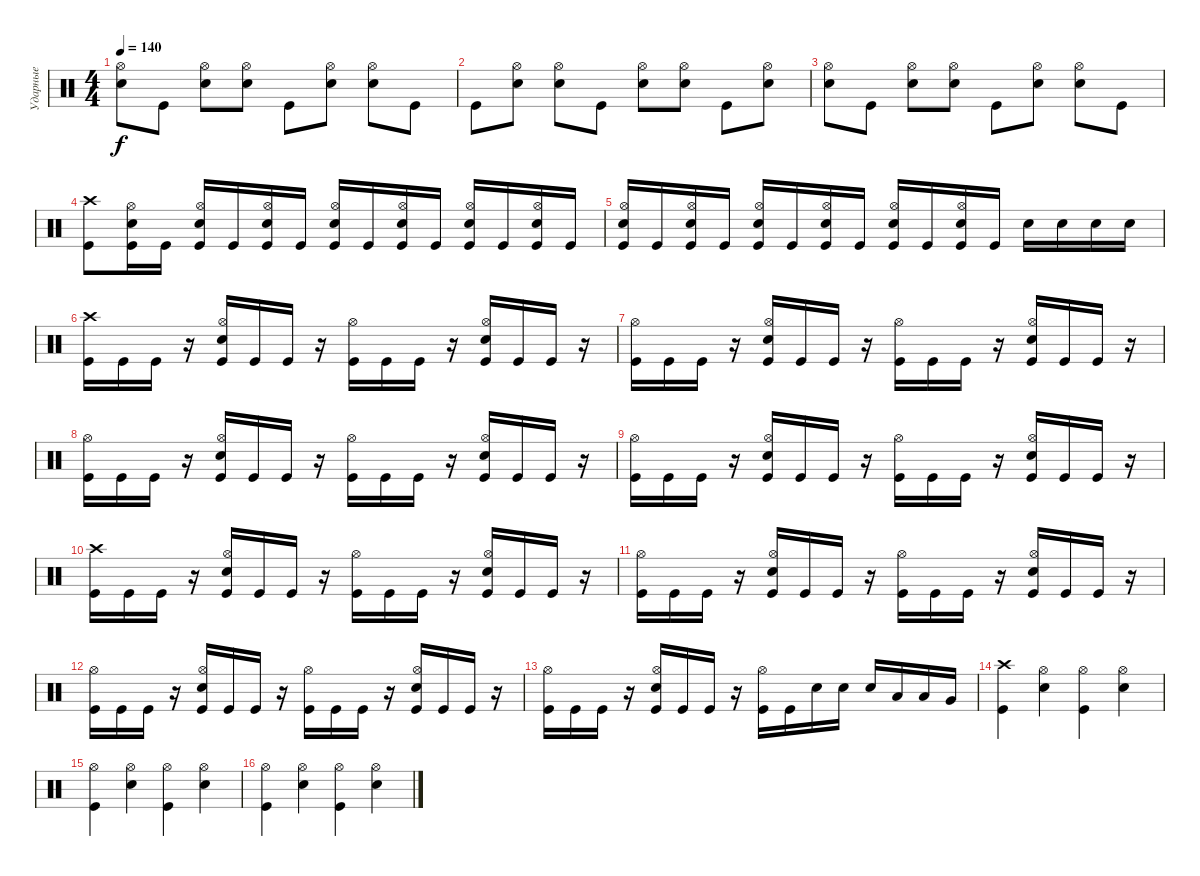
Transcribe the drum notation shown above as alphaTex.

\track ("Ударные" "Ударные") {instrument percussion}
\staff {score}
\articulation defaults
\ts (4 4)
\tempo 140
\clef neutral
\ks c
("Snare (hit) 2" "Hi-Hat (open)").8{dy f} "Kick (hit)".8 ("Snare (hit) 2" "Hi-Hat (open)").8 ("Snare (hit) 2" "Hi-Hat (open)").8 "Kick (hit)".8 ("Snare (hit) 2" "Hi-Hat (open)").8 ("Snare (hit) 2" "Hi-Hat (open)").8 "Kick (hit)".8 |
"Kick (hit)".8 ("Snare (hit) 2" "Hi-Hat (open)").8 ("Snare (hit) 2" "Hi-Hat (open)").8 "Kick (hit)".8 ("Snare (hit) 2" "Hi-Hat (open)").8 ("Snare (hit) 2" "Hi-Hat (open)").8 "Kick (hit)".8 ("Snare (hit) 2" "Hi-Hat (open)").8 |
("Snare (hit) 2" "Hi-Hat (open)").8 "Kick (hit)".8 ("Snare (hit) 2" "Hi-Hat (open)").8 ("Snare (hit) 2" "Hi-Hat (open)").8 "Kick (hit)".8 ("Snare (hit) 2" "Hi-Hat (open)").8 ("Snare (hit) 2" "Hi-Hat (open)").8 "Kick (hit)".8 |
("Kick (hit)" "Crash high (hit)").8 ("Snare (hit) 2" "Kick (hit)" "Hi-Hat (open)").16 "Kick (hit)".16 ("Snare (hit) 2" "Kick (hit)" "Hi-Hat (open)").16 "Kick (hit)".16 ("Kick (hit)" "Snare (hit) 2" "Hi-Hat (open)").16 "Kick (hit)".16 ("Snare (hit) 2" "Kick (hit)" "Hi-Hat (open)").16 "Kick (hit)".16 ("Snare (hit) 2" "Kick (hit)" "Hi-Hat (open)").16 "Kick (hit)".16 ("Kick (hit)" "Snare (hit) 2" "Hi-Hat (open)").16 "Kick (hit)".16 ("Snare (hit) 2" "Kick (hit)" "Hi-Hat (open)").16 "Kick (hit)".16 |
("Kick (hit)" "Snare (hit) 2" "Hi-Hat (open)").16 "Kick (hit)".16 ("Snare (hit) 2" "Kick (hit)" "Hi-Hat (open)").16 "Kick (hit)".16 ("Snare (hit) 2" "Kick (hit)" "Hi-Hat (open)").16 "Kick (hit)".16 ("Kick (hit)" "Snare (hit) 2" "Hi-Hat (open)").16 "Kick (hit)".16 ("Snare (hit) 2" "Kick (hit)" "Hi-Hat (open)").16 "Kick (hit)".16 ("Snare (hit) 2" "Kick (hit)" "Hi-Hat (open)").16 "Kick (hit)".16 "Snare (hit) 2".16 "Snare (hit) 2".16 "Snare (hit) 2".16 "Snare (hit) 2".16 |
("Kick (hit)" "Crash high (hit)").16 "Kick (hit)".16 "Kick (hit)".16 r.16 ("Kick (hit)" "Snare (hit) 2" "Hi-Hat (open)").16 "Kick (hit)".16 "Kick (hit)".16 r.16 ("Kick (hit)" "Hi-Hat (open)").16 "Kick (hit)".16 "Kick (hit)".16 r.16 ("Kick (hit)" "Snare (hit) 2" "Hi-Hat (open)").16 "Kick (hit)".16 "Kick (hit)".16 r.16 |
("Kick (hit)" "Hi-Hat (open)").16 "Kick (hit)".16 "Kick (hit)".16 r.16 ("Kick (hit)" "Snare (hit) 2" "Hi-Hat (open)").16 "Kick (hit)".16 "Kick (hit)".16 r.16 ("Kick (hit)" "Hi-Hat (open)").16 "Kick (hit)".16 "Kick (hit)".16 r.16 ("Kick (hit)" "Snare (hit) 2" "Hi-Hat (open)").16 "Kick (hit)".16 "Kick (hit)".16 r.16 |
("Kick (hit)" "Hi-Hat (open)").16 "Kick (hit)".16 "Kick (hit)".16 r.16 ("Kick (hit)" "Snare (hit) 2" "Hi-Hat (open)").16 "Kick (hit)".16 "Kick (hit)".16 r.16 ("Kick (hit)" "Hi-Hat (open)").16 "Kick (hit)".16 "Kick (hit)".16 r.16 ("Kick (hit)" "Snare (hit) 2" "Hi-Hat (open)").16 "Kick (hit)".16 "Kick (hit)".16 r.16 |
("Kick (hit)" "Hi-Hat (open)").16 "Kick (hit)".16 "Kick (hit)".16 r.16 ("Kick (hit)" "Snare (hit) 2" "Hi-Hat (open)").16 "Kick (hit)".16 "Kick (hit)".16 r.16 ("Kick (hit)" "Hi-Hat (open)").16 "Kick (hit)".16 "Kick (hit)".16 r.16 ("Kick (hit)" "Snare (hit) 2" "Hi-Hat (open)").16 "Kick (hit)".16 "Kick (hit)".16 r.16 |
("Kick (hit)" "Crash high (hit)").16 "Kick (hit)".16 "Kick (hit)".16 r.16 ("Kick (hit)" "Snare (hit) 2" "Hi-Hat (open)").16 "Kick (hit)".16 "Kick (hit)".16 r.16 ("Kick (hit)" "Hi-Hat (open)").16 "Kick (hit)".16 "Kick (hit)".16 r.16 ("Kick (hit)" "Snare (hit) 2" "Hi-Hat (open)").16 "Kick (hit)".16 "Kick (hit)".16 r.16 |
("Kick (hit)" "Hi-Hat (open)").16 "Kick (hit)".16 "Kick (hit)".16 r.16 ("Kick (hit)" "Snare (hit) 2" "Hi-Hat (open)").16 "Kick (hit)".16 "Kick (hit)".16 r.16 ("Kick (hit)" "Hi-Hat (open)").16 "Kick (hit)".16 "Kick (hit)".16 r.16 ("Kick (hit)" "Snare (hit) 2" "Hi-Hat (open)").16 "Kick (hit)".16 "Kick (hit)".16 r.16 |
("Kick (hit)" "Hi-Hat (open)").16 "Kick (hit)".16 "Kick (hit)".16 r.16 ("Kick (hit)" "Snare (hit) 2" "Hi-Hat (open)").16 "Kick (hit)".16 "Kick (hit)".16 r.16 ("Kick (hit)" "Hi-Hat (open)").16 "Kick (hit)".16 "Kick (hit)".16 r.16 ("Kick (hit)" "Snare (hit) 2" "Hi-Hat (open)").16 "Kick (hit)".16 "Kick (hit)".16 r.16 |
("Kick (hit)" "Hi-Hat (open)").16 "Kick (hit)".16 "Kick (hit)".16 r.16 ("Kick (hit)" "Snare (hit) 2" "Hi-Hat (open)").16 "Kick (hit)".16 "Kick (hit)".16 r.16 ("Kick (hit)" "Hi-Hat (open)").16 "Kick (hit)".16 "Snare (hit) 2".16 "Snare (hit) 2".16 "Snare (hit) 2".16 "Low Tom (hit)".16 "Low Tom (hit)".16 "Very Low Tom (hit)".16 |
("Kick (hit)" "Crash high (hit)").4 ("Snare (hit) 2" "Hi-Hat (open)").4 ("Kick (hit)" "Hi-Hat (open)").4 ("Snare (hit) 2" "Hi-Hat (open)").4 |
("Kick (hit)" "Hi-Hat (open)").4 ("Snare (hit) 2" "Hi-Hat (open)").4 ("Kick (hit)" "Hi-Hat (open)").4 ("Snare (hit) 2" "Hi-Hat (open)").4 |
("Kick (hit)" "Hi-Hat (open)").4 ("Snare (hit) 2" "Hi-Hat (open)").4 ("Kick (hit)" "Hi-Hat (open)").4 ("Snare (hit) 2" "Hi-Hat (open)").4
